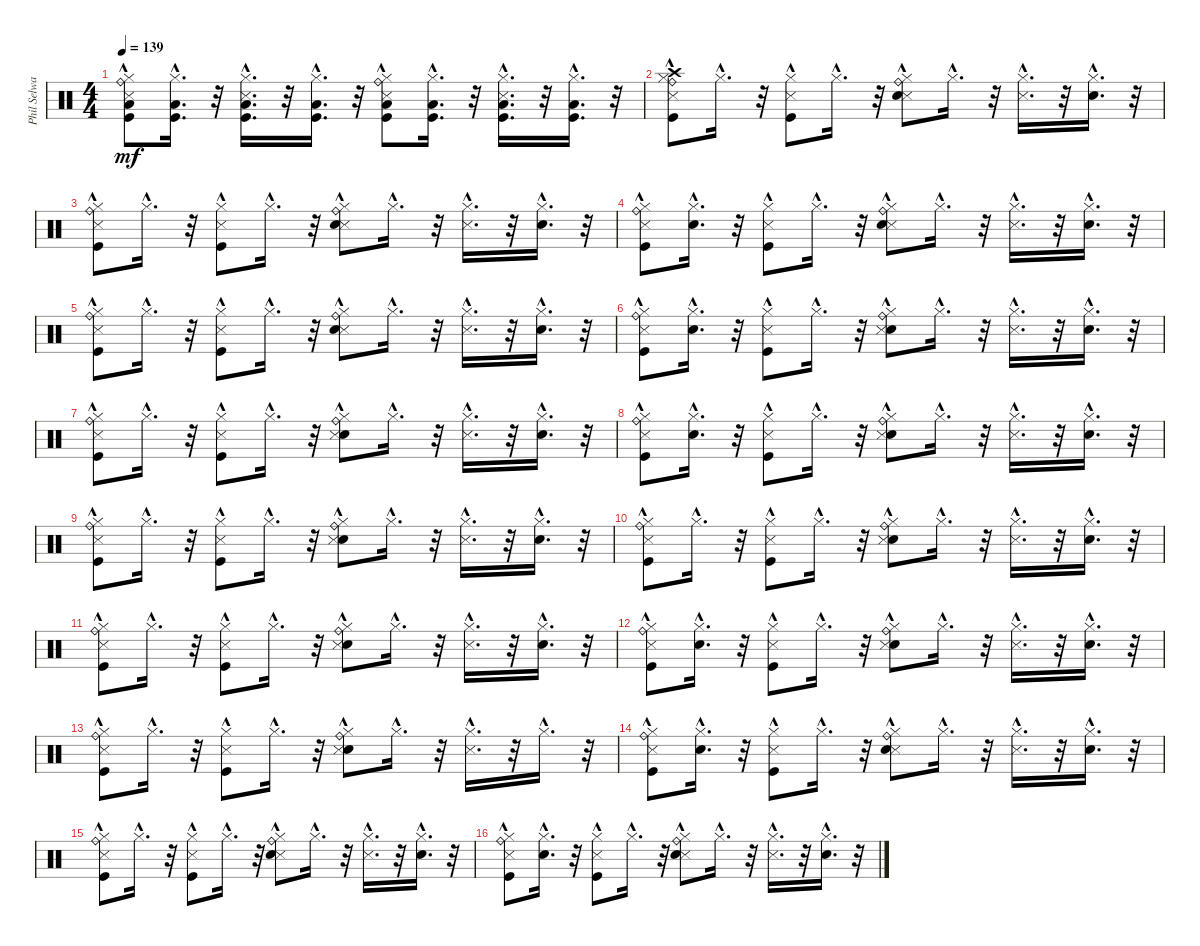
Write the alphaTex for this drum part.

\track ("Phil Selway - Drums" "Phil Selwa") {instrument percussion}
\staff {score}
\articulation defaults
\ts (4 4)
\tempo 139
\clef neutral
\ks c
("Kick (hit)"{hac} "Low Floor Tom (hit)"{hac} "Hi-Hat (closed)"{hac} "Snare (side stick) 3"{hac} "Ride (bell)"{hac}).8{dy mf} ("Kick (hit)"{hac} "Low Floor Tom (hit)"{hac} "Hi-Hat (closed)"{hac}).16{d} r.32 ("Kick (hit)"{hac} "Low Floor Tom (hit)"{hac} "Hi-Hat (closed)"{hac} "Snare (side stick) 3"{hac}).16{d} r.32 ("Kick (hit)"{hac} "Low Floor Tom (hit)"{hac} "Hi-Hat (closed)"{hac}).16{d} r.32 ("Kick (hit)"{hac} "Low Floor Tom (hit)"{hac} "Hi-Hat (closed)"{hac} "Snare (side stick) 3"{hac} "Ride (bell)"{hac}).8 ("Kick (hit)"{hac} "Low Floor Tom (hit)"{hac} "Hi-Hat (closed)"{hac}).16{d} r.32 ("Kick (hit)"{hac} "Low Floor Tom (hit)"{hac} "Hi-Hat (closed)"{hac} "Snare (side stick) 3"{hac}).16{d} r.32 ("Kick (hit)"{hac} "Low Floor Tom (hit)"{hac} "Hi-Hat (closed)"{hac}).16{d} r.32 |
("Snare (side stick) 3"{hac} "Hi-Hat (closed)"{hac} "Crash high (hit)"{hac} "Kick (hit)"{hac} "Ride (bell)"{hac}).8 "Hi-Hat (closed)"{hac}.16{d} r.32 ("Snare (side stick) 3"{hac} "Hi-Hat (closed)"{hac} "Kick (hit)"{hac}).8 "Hi-Hat (closed)"{hac}.16{d} r.32 ("Snare (side stick) 3"{hac} "Hi-Hat (closed)"{hac} "Snare (hit) 2"{hac} "Ride (bell)"{hac}).8 "Hi-Hat (closed)"{hac}.16{d} r.32 ("Snare (side stick) 3"{hac} "Hi-Hat (closed)"{hac}).16{d} r.32 ("Hi-Hat (closed)"{hac} "Snare (hit) 2"{hac}).16{d} r.32 |
("Hi-Hat (closed)"{hac} "Snare (side stick) 3"{hac} "Kick (hit)"{hac} "Ride (bell)"{hac}).8 "Hi-Hat (closed)"{hac}.16{d} r.32 ("Hi-Hat (closed)"{hac} "Snare (side stick) 3"{hac} "Kick (hit)"{hac}).8 "Hi-Hat (closed)"{hac}.16{d} r.32 ("Hi-Hat (closed)"{hac} "Snare (side stick) 3"{hac} "Snare (hit) 2"{hac} "Ride (bell)"{hac}).8 "Hi-Hat (closed)"{hac}.16{d} r.32 ("Hi-Hat (closed)"{hac} "Snare (side stick) 3"{hac}).16{d} r.32 ("Hi-Hat (closed)"{hac} "Snare (hit) 2"{hac}).16{d} r.32 |
("Hi-Hat (closed)"{hac} "Snare (side stick) 3"{hac} "Kick (hit)"{hac} "Ride (bell)"{hac}).8 ("Hi-Hat (closed)"{hac} "Snare (hit) 2"{hac}).16{d} r.32 ("Hi-Hat (closed)"{hac} "Snare (side stick) 3"{hac} "Kick (hit)"{hac}).8 "Hi-Hat (closed)"{hac}.16{d} r.32 ("Hi-Hat (closed)"{hac} "Snare (side stick) 3"{hac} "Snare (hit) 2"{hac} "Ride (bell)"{hac}).8 "Hi-Hat (closed)"{hac}.16{d} r.32 ("Hi-Hat (closed)"{hac} "Snare (side stick) 3"{hac}).16{d} r.32 ("Hi-Hat (closed)"{hac} "Snare (hit) 2"{hac}).16{d} r.32 |
("Hi-Hat (closed)"{hac} "Snare (side stick) 3"{hac} "Kick (hit)"{hac} "Ride (bell)"{hac}).8 "Hi-Hat (closed)"{hac}.16{d} r.32 ("Hi-Hat (closed)"{hac} "Snare (side stick) 3"{hac} "Kick (hit)"{hac}).8 "Hi-Hat (closed)"{hac}.16{d} r.32 ("Hi-Hat (closed)"{hac} "Snare (side stick) 3"{hac} "Snare (hit) 2"{hac} "Ride (bell)"{hac}).8 "Hi-Hat (closed)"{hac}.16{d} r.32 ("Hi-Hat (closed)"{hac} "Snare (side stick) 3"{hac}).16{d} r.32 ("Hi-Hat (closed)"{hac} "Snare (hit) 2"{hac}).16{d} r.32 |
("Ride (bell)"{hac} "Kick (hit)"{hac} "Snare (side stick) 3"{hac} "Hi-Hat (closed)"{hac}).8 ("Snare (hit) 2"{hac} "Hi-Hat (closed)"{hac}).16{d} r.32 ("Kick (hit)"{hac} "Snare (side stick) 3"{hac} "Hi-Hat (closed)"{hac}).8 "Hi-Hat (closed)"{hac}.16{d} r.32 ("Ride (bell)"{hac} "Snare (hit) 2"{hac} "Snare (side stick) 3"{hac} "Hi-Hat (closed)"{hac}).8 "Hi-Hat (closed)"{hac}.16{d} r.32 ("Snare (side stick) 3"{hac} "Hi-Hat (closed)"{hac}).16{d} r.32 ("Snare (hit) 2"{hac} "Hi-Hat (closed)"{hac}).16{d} r.32 |
("Ride (bell)"{hac} "Kick (hit)"{hac} "Snare (side stick) 3"{hac} "Hi-Hat (closed)"{hac}).8 "Hi-Hat (closed)"{hac}.16{d} r.32 ("Kick (hit)"{hac} "Snare (side stick) 3"{hac} "Hi-Hat (closed)"{hac}).8 "Hi-Hat (closed)"{hac}.16{d} r.32 ("Ride (bell)"{hac} "Snare (hit) 2"{hac} "Snare (side stick) 3"{hac} "Hi-Hat (closed)"{hac}).8 "Hi-Hat (closed)"{hac}.16{d} r.32 ("Snare (side stick) 3"{hac} "Hi-Hat (closed)"{hac}).16{d} r.32 ("Snare (hit) 2"{hac} "Hi-Hat (closed)"{hac}).16{d} r.32 |
("Ride (bell)"{hac} "Kick (hit)"{hac} "Snare (side stick) 3"{hac} "Hi-Hat (closed)"{hac}).8 ("Snare (hit) 2"{hac} "Hi-Hat (closed)"{hac}).16{d} r.32 ("Kick (hit)"{hac} "Snare (side stick) 3"{hac} "Hi-Hat (closed)"{hac}).8 "Hi-Hat (closed)"{hac}.16{d} r.32 ("Ride (bell)"{hac} "Snare (hit) 2"{hac} "Snare (side stick) 3"{hac} "Hi-Hat (closed)"{hac}).8 "Hi-Hat (closed)"{hac}.16{d} r.32 ("Snare (side stick) 3"{hac} "Hi-Hat (closed)"{hac}).16{d} r.32 ("Snare (hit) 2"{hac} "Hi-Hat (closed)"{hac}).16{d} r.32 |
("Ride (bell)"{hac} "Kick (hit)"{hac} "Snare (side stick) 3"{hac} "Hi-Hat (closed)"{hac}).8 "Hi-Hat (closed)"{hac}.16{d} r.32 ("Kick (hit)"{hac} "Snare (side stick) 3"{hac} "Hi-Hat (closed)"{hac}).8 "Hi-Hat (closed)"{hac}.16{d} r.32 ("Ride (bell)"{hac} "Snare (hit) 2"{hac} "Snare (side stick) 3"{hac} "Hi-Hat (closed)"{hac}).8 "Hi-Hat (closed)"{hac}.16{d} r.32 ("Snare (side stick) 3"{hac} "Hi-Hat (closed)"{hac}).16{d} r.32 ("Snare (hit) 2"{hac} "Hi-Hat (closed)"{hac}).16{d} r.32 |
("Ride (bell)"{hac} "Kick (hit)"{hac} "Hi-Hat (closed)"{hac} "Snare (side stick) 3"{hac}).8 "Hi-Hat (closed)"{hac}.16{d} r.32 ("Kick (hit)"{hac} "Hi-Hat (closed)"{hac} "Snare (side stick) 3"{hac}).8 "Hi-Hat (closed)"{hac}.16{d} r.32 ("Ride (bell)"{hac} "Snare (hit) 2"{hac} "Hi-Hat (closed)"{hac} "Snare (side stick) 3"{hac}).8 "Hi-Hat (closed)"{hac}.16{d} r.32 ("Hi-Hat (closed)"{hac} "Snare (side stick) 3"{hac}).16{d} r.32 ("Snare (hit) 2"{hac} "Hi-Hat (closed)"{hac}).16{d} r.32 |
("Ride (bell)"{hac} "Kick (hit)"{hac} "Snare (side stick) 3"{hac} "Hi-Hat (closed)"{hac}).8 "Hi-Hat (closed)"{hac}.16{d} r.32 ("Kick (hit)"{hac} "Snare (side stick) 3"{hac} "Hi-Hat (closed)"{hac}).8 "Hi-Hat (closed)"{hac}.16{d} r.32 ("Ride (bell)"{hac} "Snare (hit) 2"{hac} "Snare (side stick) 3"{hac} "Hi-Hat (closed)"{hac}).8 "Hi-Hat (closed)"{hac}.16{d} r.32 ("Snare (side stick) 3"{hac} "Hi-Hat (closed)"{hac}).16{d} r.32 ("Snare (hit) 2"{hac} "Hi-Hat (closed)"{hac}).16{d} r.32 |
("Ride (bell)"{hac} "Kick (hit)"{hac} "Snare (side stick) 3"{hac} "Hi-Hat (closed)"{hac}).8 ("Snare (hit) 2"{hac} "Hi-Hat (closed)"{hac}).16{d} r.32 ("Kick (hit)"{hac} "Snare (side stick) 3"{hac} "Hi-Hat (closed)"{hac}).8 "Hi-Hat (closed)"{hac}.16{d} r.32 ("Ride (bell)"{hac} "Snare (hit) 2"{hac} "Snare (side stick) 3"{hac} "Hi-Hat (closed)"{hac}).8 "Hi-Hat (closed)"{hac}.16{d} r.32 ("Snare (side stick) 3"{hac} "Hi-Hat (closed)"{hac}).16{d} r.32 ("Snare (hit) 2"{hac} "Hi-Hat (closed)"{hac}).16{d} r.32 |
("Ride (bell)"{hac} "Kick (hit)"{hac} "Snare (side stick) 3"{hac} "Hi-Hat (closed)"{hac}).8 "Hi-Hat (closed)"{hac}.16{d} r.32 ("Kick (hit)"{hac} "Snare (side stick) 3"{hac} "Hi-Hat (closed)"{hac}).8 "Hi-Hat (closed)"{hac}.16{d} r.32 ("Ride (bell)"{hac} "Snare (hit) 2"{hac} "Snare (side stick) 3"{hac} "Hi-Hat (closed)"{hac}).8 "Hi-Hat (closed)"{hac}.16{d} r.32 ("Snare (side stick) 3"{hac} "Hi-Hat (closed)"{hac}).16{d} r.32 "Hi-Hat (closed)"{hac}.16{d} r.32 |
("Hi-Hat (closed)"{hac} "Snare (side stick) 3"{hac} "Kick (hit)"{hac} "Ride (bell)"{hac}).8 ("Hi-Hat (closed)"{hac} "Snare (hit) 2"{hac}).16{d} r.32 ("Hi-Hat (closed)"{hac} "Snare (side stick) 3"{hac} "Kick (hit)"{hac}).8 "Hi-Hat (closed)"{hac}.16{d} r.32 ("Hi-Hat (closed)"{hac} "Snare (side stick) 3"{hac} "Snare (hit) 2"{hac} "Ride (bell)"{hac}).8 "Hi-Hat (closed)"{hac}.16{d} r.32 ("Hi-Hat (closed)"{hac} "Snare (side stick) 3"{hac}).16{d} r.32 ("Hi-Hat (closed)"{hac} "Snare (hit) 2"{hac}).16{d} r.32 |
("Hi-Hat (closed)"{hac} "Snare (side stick) 3"{hac} "Kick (hit)"{hac} "Ride (bell)"{hac}).8 "Hi-Hat (closed)"{hac}.16{d} r.32 ("Hi-Hat (closed)"{hac} "Snare (side stick) 3"{hac} "Kick (hit)"{hac}).8 "Hi-Hat (closed)"{hac}.16{d} r.32 ("Hi-Hat (closed)"{hac} "Snare (side stick) 3"{hac} "Snare (hit) 2"{hac} "Ride (bell)"{hac}).8 "Hi-Hat (closed)"{hac}.16{d} r.32 ("Hi-Hat (closed)"{hac} "Snare (side stick) 3"{hac}).16{d} r.32 ("Hi-Hat (closed)"{hac} "Snare (hit) 2"{hac}).16{d} r.32 |
("Hi-Hat (closed)"{hac} "Snare (side stick) 3"{hac} "Kick (hit)"{hac} "Ride (bell)"{hac}).8 ("Hi-Hat (closed)"{hac} "Snare (hit) 2"{hac}).16{d} r.32 ("Hi-Hat (closed)"{hac} "Snare (side stick) 3"{hac} "Kick (hit)"{hac}).8 "Hi-Hat (closed)"{hac}.16{d} r.32 ("Hi-Hat (closed)"{hac} "Snare (side stick) 3"{hac} "Snare (hit) 2"{hac} "Ride (bell)"{hac}).8 "Hi-Hat (closed)"{hac}.16{d} r.32 ("Hi-Hat (closed)"{hac} "Snare (side stick) 3"{hac}).16{d} r.32 ("Hi-Hat (closed)"{hac} "Snare (hit) 2"{hac}).16{d} r.32
